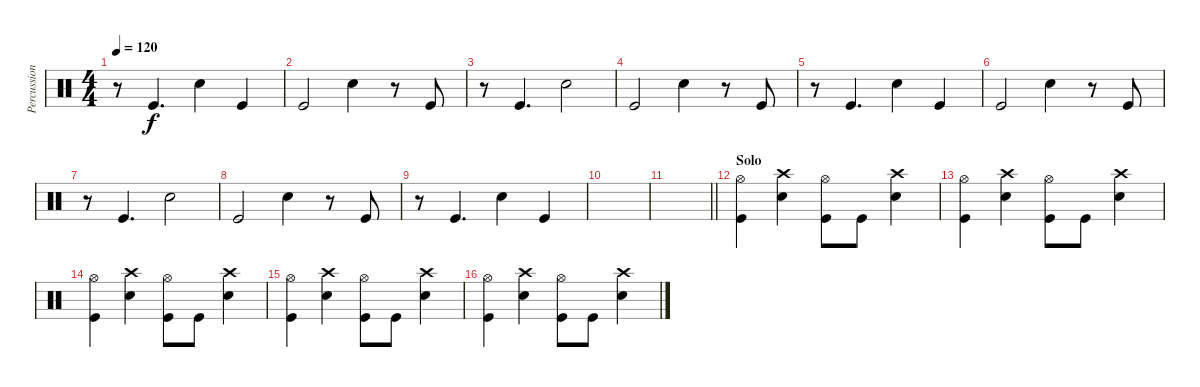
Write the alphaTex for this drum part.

\track ("Percussion" "Percussion") {instrument percussion}
\staff {score}
\articulation defaults
\ts (4 4)
\tempo 120
\clef neutral
\ks c
r.8{dy f} "Kick (hit)".4{d} "Snare (hit) 2".4 "Kick (hit)".4 |
"Kick (hit)".2 "Snare (hit) 2".4 r.8 "Kick (hit)".8 |
r.8 "Kick (hit)".4{d} "Snare (hit) 2".2 |
"Kick (hit)".2 "Snare (hit) 2".4 r.8 "Kick (hit)".8 |
r.8 "Kick (hit)".4{d} "Snare (hit) 2".4 "Kick (hit)".4 |
"Kick (hit)".2 "Snare (hit) 2".4 r.8 "Kick (hit)".8 |
r.8 "Kick (hit)".4{d} "Snare (hit) 2".2 |
"Kick (hit)".2 "Snare (hit) 2".4 r.8 "Kick (hit)".8 |
r.8 "Kick (hit)".4{d} "Snare (hit) 2".4 "Kick (hit)".4 |
|
\barLineRight lightlight
|
\section ("" "Solo")
("Hi-Hat (open)" "Kick (hit)").4 ("Crash high (hit)" "Snare (hit) 2").4 ("Hi-Hat (open)" "Kick (hit)").8 "Kick (hit)".8 ("Crash high (hit)" "Snare (hit) 2").4 |
("Hi-Hat (open)" "Kick (hit)").4 ("Crash high (hit)" "Snare (hit) 2").4 ("Hi-Hat (open)" "Kick (hit)").8 "Kick (hit)".8 ("Crash high (hit)" "Snare (hit) 2").4 |
("Hi-Hat (open)" "Kick (hit)").4 ("Crash high (hit)" "Snare (hit) 2").4 ("Hi-Hat (open)" "Kick (hit)").8 "Kick (hit)".8 ("Crash high (hit)" "Snare (hit) 2").4 |
("Hi-Hat (open)" "Kick (hit)").4 ("Crash high (hit)" "Snare (hit) 2").4 ("Hi-Hat (open)" "Kick (hit)").8 "Kick (hit)".8 ("Crash high (hit)" "Snare (hit) 2").4 |
("Hi-Hat (open)" "Kick (hit)").4 ("Crash high (hit)" "Snare (hit) 2").4 ("Hi-Hat (open)" "Kick (hit)").8 "Kick (hit)".8 ("Crash high (hit)" "Snare (hit) 2").4
